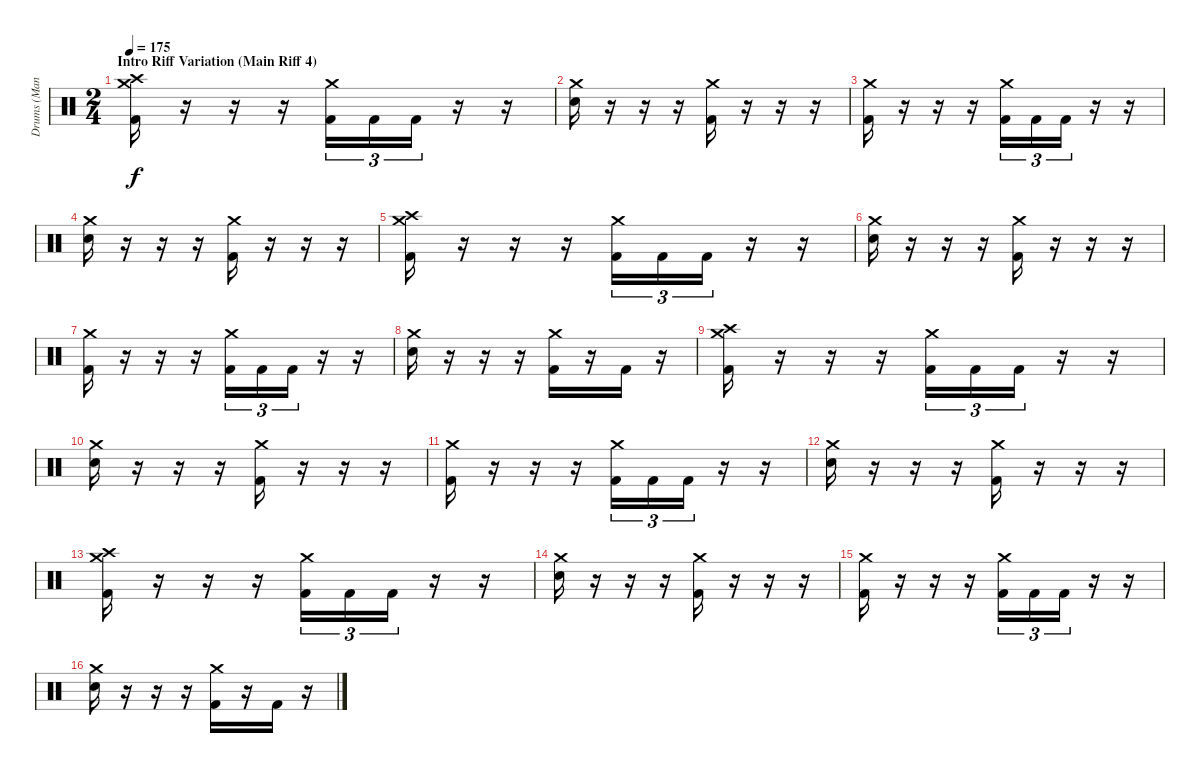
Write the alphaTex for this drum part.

\track ("Drums (Mancino)" "Drums (Man") {instrument percussion}
\staff {score}
\articulation defaults
\ts (2 4)
\section ("" "Intro Riff Variation (Main Riff 4)")
\tempo 175
\clef neutral
\ks c
("Crash medium (hit)" "Crash high (hit)" "Kick (hit) 2").16{dy f} r.16 r.16 r.16 ("Crash medium (hit)" "Kick (hit) 2").16{tu (3 2)} "Kick (hit) 2".16{tu (3 2)} "Kick (hit) 2".16{tu (3 2)} r.16 r.16 |
("Crash medium (hit)" "Electric Snare (hit)").16 r.16 r.16 r.16 ("Crash medium (hit)" "Kick (hit) 2").16 r.16 r.16 r.16 |
("Crash medium (hit)" "Kick (hit) 2").16 r.16 r.16 r.16 ("Crash medium (hit)" "Kick (hit) 2").16{tu (3 2)} "Kick (hit) 2".16{tu (3 2)} "Kick (hit) 2".16{tu (3 2)} r.16 r.16 |
("Crash medium (hit)" "Electric Snare (hit)").16 r.16 r.16 r.16 ("Crash medium (hit)" "Kick (hit) 2").16 r.16 r.16 r.16 |
("Crash medium (hit)" "Crash high (hit)" "Kick (hit) 2").16 r.16 r.16 r.16 ("Crash medium (hit)" "Kick (hit) 2").16{tu (3 2)} "Kick (hit) 2".16{tu (3 2)} "Kick (hit) 2".16{tu (3 2)} r.16 r.16 |
("Crash medium (hit)" "Electric Snare (hit)").16 r.16 r.16 r.16 ("Crash medium (hit)" "Kick (hit) 2").16 r.16 r.16 r.16 |
("Crash medium (hit)" "Kick (hit) 2").16 r.16 r.16 r.16 ("Crash medium (hit)" "Kick (hit) 2").16{tu (3 2)} "Kick (hit) 2".16{tu (3 2)} "Kick (hit) 2".16{tu (3 2)} r.16 r.16 |
("Crash medium (hit)" "Electric Snare (hit)").16 r.16 r.16 r.16 ("Crash medium (hit)" "Kick (hit) 2").16 r.16 "Kick (hit) 2".16 r.16 |
("Crash medium (hit)" "Crash high (hit)" "Kick (hit) 2").16 r.16 r.16 r.16 ("Crash medium (hit)" "Kick (hit) 2").16{tu (3 2)} "Kick (hit) 2".16{tu (3 2)} "Kick (hit) 2".16{tu (3 2)} r.16 r.16 |
("Crash medium (hit)" "Electric Snare (hit)").16 r.16 r.16 r.16 ("Crash medium (hit)" "Kick (hit) 2").16 r.16 r.16 r.16 |
("Crash medium (hit)" "Kick (hit) 2").16 r.16 r.16 r.16 ("Crash medium (hit)" "Kick (hit) 2").16{tu (3 2)} "Kick (hit) 2".16{tu (3 2)} "Kick (hit) 2".16{tu (3 2)} r.16 r.16 |
("Crash medium (hit)" "Electric Snare (hit)").16 r.16 r.16 r.16 ("Crash medium (hit)" "Kick (hit) 2").16 r.16 r.16 r.16 |
("Crash medium (hit)" "Crash high (hit)" "Kick (hit) 2").16 r.16 r.16 r.16 ("Crash medium (hit)" "Kick (hit) 2").16{tu (3 2)} "Kick (hit) 2".16{tu (3 2)} "Kick (hit) 2".16{tu (3 2)} r.16 r.16 |
("Crash medium (hit)" "Electric Snare (hit)").16 r.16 r.16 r.16 ("Crash medium (hit)" "Kick (hit) 2").16 r.16 r.16 r.16 |
("Crash medium (hit)" "Kick (hit) 2").16 r.16 r.16 r.16 ("Crash medium (hit)" "Kick (hit) 2").16{tu (3 2)} "Kick (hit) 2".16{tu (3 2)} "Kick (hit) 2".16{tu (3 2)} r.16 r.16 |
("Crash medium (hit)" "Electric Snare (hit)").16 r.16 r.16 r.16 ("Crash medium (hit)" "Kick (hit) 2").16 r.16 "Kick (hit) 2".16 r.16
